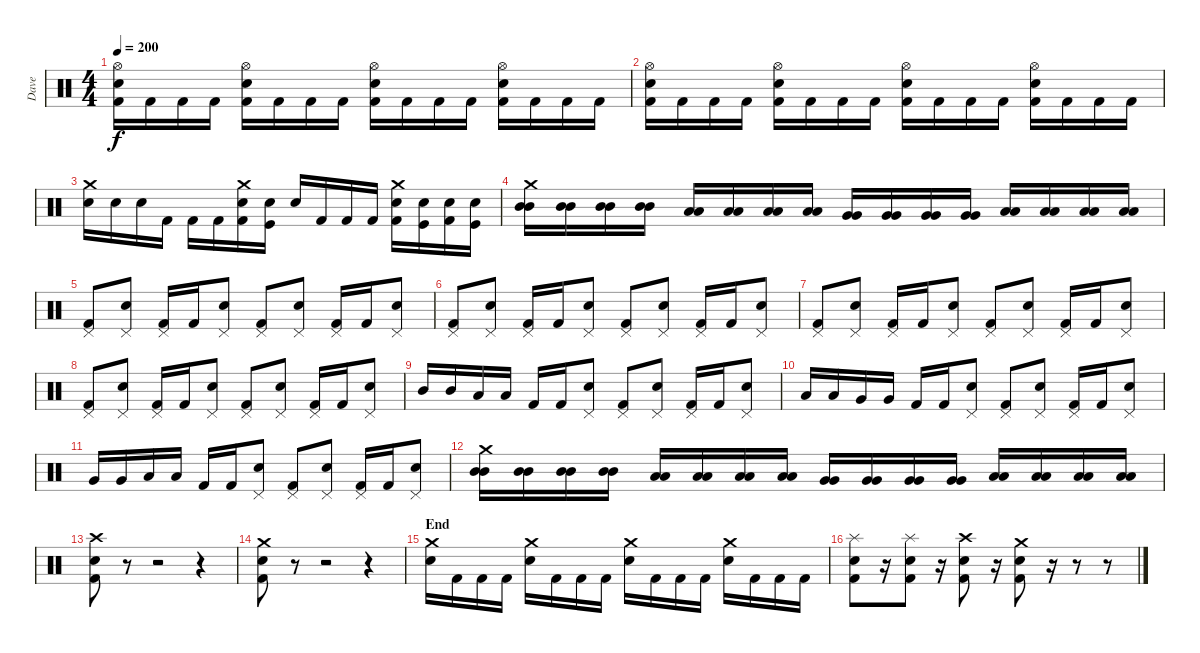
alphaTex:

\track ("Dave" "Dave") {instrument percussion}
\staff {score}
\articulation defaults
\ts (4 4)
\tempo 200
\clef neutral
\ks c
("Hi-Hat (open)" "Snare (hit) 2" "Kick (hit) 2").16{dy f} "Kick (hit) 2".16 "Kick (hit) 2".16 "Kick (hit) 2".16 ("Hi-Hat (open)" "Snare (hit) 2" "Kick (hit) 2").16 "Kick (hit) 2".16 "Kick (hit) 2".16 "Kick (hit) 2".16 ("Hi-Hat (open)" "Snare (hit) 2" "Kick (hit) 2").16 "Kick (hit) 2".16 "Kick (hit) 2".16 "Kick (hit) 2".16 ("Hi-Hat (open)" "Snare (hit) 2" "Kick (hit) 2").16 "Kick (hit) 2".16 "Kick (hit) 2".16 "Kick (hit) 2".16 |
("Hi-Hat (open)" "Snare (hit) 2" "Kick (hit) 2").16 "Kick (hit) 2".16 "Kick (hit) 2".16 "Kick (hit) 2".16 ("Hi-Hat (open)" "Snare (hit) 2" "Kick (hit) 2").16 "Kick (hit) 2".16 "Kick (hit) 2".16 "Kick (hit) 2".16 ("Hi-Hat (open)" "Snare (hit) 2" "Kick (hit) 2").16 "Kick (hit) 2".16 "Kick (hit) 2".16 "Kick (hit) 2".16 ("Hi-Hat (open)" "Snare (hit) 2" "Kick (hit) 2").16 "Kick (hit) 2".16 "Kick (hit) 2".16 "Kick (hit) 2".16 |
("Crash medium (hit)" "Snare (hit) 2").16 "Snare (hit) 2".16 "Snare (hit) 2".16 "Kick (hit) 2".16 "Kick (hit) 2".16 "Kick (hit) 2".16 ("Crash medium (hit)" "Snare (hit) 2" "Kick (hit) 2"{x}).16 ("Snare (hit) 2" "Kick (hit)"{x}).16 "Snare (hit) 2".16 "Kick (hit) 2".16 "Kick (hit) 2".16 "Kick (hit) 2".16 ("Crash medium (hit)" "Snare (hit) 2" "Kick (hit) 2"{x}).16 ("Snare (hit) 2" "Kick (hit)"{x}).16 ("Snare (hit) 2" "Kick (hit) 2"{x}).16 ("Snare (hit) 2" "Kick (hit)"{x}).16 |
("Crash medium (hit)" "Mid Tom (hit)" "Mid Tom (hit)").16 ("Mid Tom (hit)" "Mid Tom (hit)").16 ("Mid Tom (hit)" "Mid Tom (hit)").16 ("Mid Tom (hit)" "Mid Tom (hit)").16 ("Low Tom (hit)" "Low Tom (hit)").16 ("Low Tom (hit)" "Low Tom (hit)").16 ("Low Tom (hit)" "Low Tom (hit)").16 ("Low Tom (hit)" "Low Tom (hit)").16 ("Very Low Tom (hit)" "Very Low Tom (hit)").16 ("Very Low Tom (hit)" "Very Low Tom (hit)").16 ("Very Low Tom (hit)" "Very Low Tom (hit)").16 ("Very Low Tom (hit)" "Very Low Tom (hit)").16 ("Low Floor Tom (hit)" "Low Floor Tom (hit)").16 ("Low Floor Tom (hit)" "Low Floor Tom (hit)").16 ("Low Floor Tom (hit)" "Low Floor Tom (hit)").16 ("Low Floor Tom (hit)" "Low Floor Tom (hit)").16 |
("Pedal Hi-Hat (hit)" "Kick (hit) 2").8 ("Pedal Hi-Hat (hit)" "Snare (hit) 2").8 ("Pedal Hi-Hat (hit)" "Kick (hit) 2").16 "Kick (hit) 2".16 ("Pedal Hi-Hat (hit)" "Snare (hit) 2").8 ("Pedal Hi-Hat (hit)" "Kick (hit) 2").8 ("Pedal Hi-Hat (hit)" "Snare (hit) 2").8 ("Pedal Hi-Hat (hit)" "Kick (hit) 2").16 "Kick (hit) 2".16 ("Pedal Hi-Hat (hit)" "Snare (hit) 2").8 |
("Pedal Hi-Hat (hit)" "Kick (hit) 2").8 ("Pedal Hi-Hat (hit)" "Snare (hit) 2").8 ("Pedal Hi-Hat (hit)" "Kick (hit) 2").16 "Kick (hit) 2".16 ("Pedal Hi-Hat (hit)" "Snare (hit) 2").8 ("Pedal Hi-Hat (hit)" "Kick (hit) 2").8 ("Pedal Hi-Hat (hit)" "Snare (hit) 2").8 ("Pedal Hi-Hat (hit)" "Kick (hit) 2").16 "Kick (hit) 2".16 ("Pedal Hi-Hat (hit)" "Snare (hit) 2").8 |
("Pedal Hi-Hat (hit)" "Kick (hit) 2").8 ("Pedal Hi-Hat (hit)" "Snare (hit) 2").8 ("Pedal Hi-Hat (hit)" "Kick (hit) 2").16 "Kick (hit) 2".16 ("Pedal Hi-Hat (hit)" "Snare (hit) 2").8 ("Pedal Hi-Hat (hit)" "Kick (hit) 2").8 ("Pedal Hi-Hat (hit)" "Snare (hit) 2").8 ("Pedal Hi-Hat (hit)" "Kick (hit) 2").16 "Kick (hit) 2".16 ("Pedal Hi-Hat (hit)" "Snare (hit) 2").8 |
("Pedal Hi-Hat (hit)" "Kick (hit) 2").8 ("Pedal Hi-Hat (hit)" "Snare (hit) 2").8 ("Pedal Hi-Hat (hit)" "Kick (hit) 2").16 "Kick (hit) 2".16 ("Pedal Hi-Hat (hit)" "Snare (hit) 2").8 ("Pedal Hi-Hat (hit)" "Kick (hit) 2").8 ("Pedal Hi-Hat (hit)" "Snare (hit) 2").8 ("Pedal Hi-Hat (hit)" "Kick (hit) 2").16 "Kick (hit) 2".16 ("Pedal Hi-Hat (hit)" "Snare (hit) 2").8 |
"Mid Tom (hit)".16 "Mid Tom (hit)".16 "Low Tom (hit)".16 "Low Tom (hit)".16 "Kick (hit) 2".16 "Kick (hit) 2".16 ("Pedal Hi-Hat (hit)" "Snare (hit) 2").8 ("Pedal Hi-Hat (hit)" "Kick (hit) 2").8 ("Pedal Hi-Hat (hit)" "Snare (hit) 2").8 ("Pedal Hi-Hat (hit)" "Kick (hit) 2").16 "Kick (hit) 2".16 ("Pedal Hi-Hat (hit)" "Snare (hit) 2").8 |
"Low Tom (hit)".16 "Low Tom (hit)".16 "Very Low Tom (hit)".16 "Very Low Tom (hit)".16 "Kick (hit) 2".16 "Kick (hit) 2".16 ("Pedal Hi-Hat (hit)" "Snare (hit) 2").8 ("Pedal Hi-Hat (hit)" "Kick (hit) 2").8 ("Pedal Hi-Hat (hit)" "Snare (hit) 2").8 ("Pedal Hi-Hat (hit)" "Kick (hit) 2").16 "Kick (hit) 2".16 ("Pedal Hi-Hat (hit)" "Snare (hit) 2").8 |
"Very Low Tom (hit)".16 "Very Low Tom (hit)".16 "Low Floor Tom (hit)".16 "Low Floor Tom (hit)".16 "Kick (hit) 2".16 "Kick (hit) 2".16 ("Pedal Hi-Hat (hit)" "Snare (hit) 2").8 ("Pedal Hi-Hat (hit)" "Kick (hit) 2").8 ("Pedal Hi-Hat (hit)" "Snare (hit) 2").8 ("Pedal Hi-Hat (hit)" "Kick (hit) 2").16 "Kick (hit) 2".16 ("Pedal Hi-Hat (hit)" "Snare (hit) 2").8 |
("Crash medium (hit)" "Mid Tom (hit)" "Mid Tom (hit)").16 ("Mid Tom (hit)" "Mid Tom (hit)").16 ("Mid Tom (hit)" "Mid Tom (hit)").16 ("Mid Tom (hit)" "Mid Tom (hit)").16 ("Low Tom (hit)" "Low Tom (hit)").16 ("Low Tom (hit)" "Low Tom (hit)").16 ("Low Tom (hit)" "Low Tom (hit)").16 ("Low Tom (hit)" "Low Tom (hit)").16 ("Very Low Tom (hit)" "Very Low Tom (hit)").16 ("Very Low Tom (hit)" "Very Low Tom (hit)").16 ("Very Low Tom (hit)" "Very Low Tom (hit)").16 ("Very Low Tom (hit)" "Very Low Tom (hit)").16 ("Low Floor Tom (hit)" "Low Floor Tom (hit)").16 ("Low Floor Tom (hit)" "Low Floor Tom (hit)").16 ("Low Floor Tom (hit)" "Low Floor Tom (hit)").16 ("Low Floor Tom (hit)" "Low Floor Tom (hit)").16 |
("Crash high (hit)" "Snare (hit) 2" "Kick (hit) 2").8 r.8 r.2 r.4 |
("Crash medium (hit)" "Snare (hit) 2" "Kick (hit) 2").8 r.8 r.2 r.4 |
\section ("" "End")
("Crash medium (hit)" "Snare (hit) 2").16 "Kick (hit) 2".16 "Kick (hit) 2".16 "Kick (hit) 2".16 ("Crash medium (hit)" "Snare (hit) 2").16 "Kick (hit) 2".16 "Kick (hit) 2".16 "Kick (hit) 2".16 ("Crash medium (hit)" "Snare (hit) 2").16 "Kick (hit) 2".16 "Kick (hit) 2".16 "Kick (hit) 2".16 ("Crash medium (hit)" "Snare (hit) 2").16 "Kick (hit) 2".16 "Kick (hit) 2".16 "Kick (hit) 2".16 |
("Splash (hit)" "Snare (hit) 2" "Kick (hit) 2").8 r.16 ("Splash (hit)" "Snare (hit) 2" "Kick (hit) 2").8 r.16 ("Crash high (hit)" "Snare (hit) 2" "Kick (hit) 2").8 r.16 ("Crash medium (hit)" "Snare (hit) 2" "Kick (hit) 2").8 r.16 r.8 r.8
